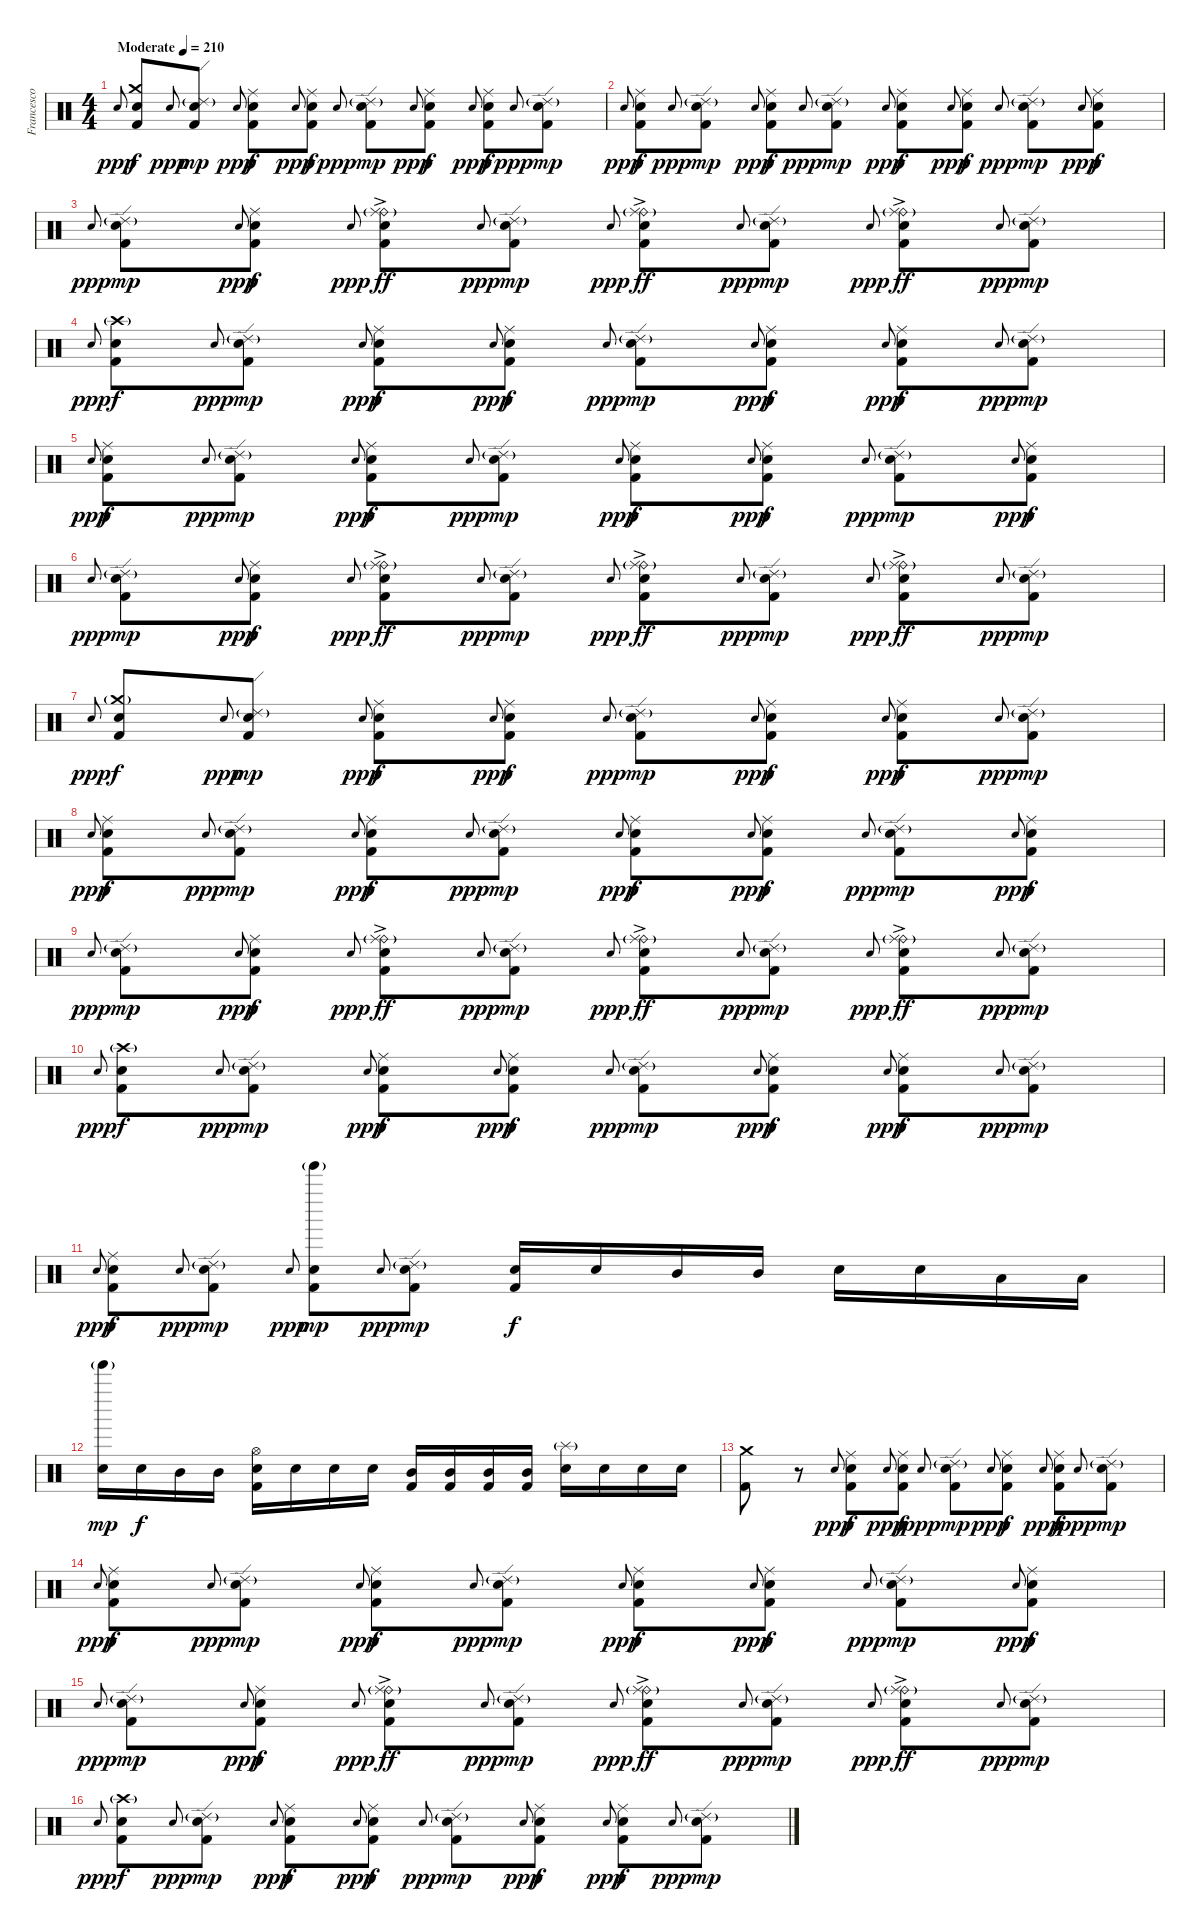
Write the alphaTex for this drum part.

\track ("Francesco Ferrini" "Francesco ") {instrument percussion}
\staff {score}
\articulation defaults
\ts (4 4)
\tempo (210 "Moderate")
\clef neutral
\ks c "Electric Snare (hit)"{h}.8{gr onbeat dy ppp}
("Crash medium (hit)" "Electric Snare (hit)" "Kick (hit) 2").8{dy f} "Electric Snare (hit)"{h}.8{gr onbeat dy ppp} ("Ride (edge) 2"{g} "Electric Snare (hit)" "Kick (hit) 2").8{dy mp} "Electric Snare (hit)"{h}.8{gr onbeat dy ppp} ("Ride (middle)" "Electric Snare (hit)" "Kick (hit) 2").8{dy f} "Electric Snare (hit)"{h}.8{gr onbeat dy ppp} ("Ride (middle)" "Electric Snare (hit)" "Kick (hit) 2").8{dy f} "Electric Snare (hit)"{h}.8{gr onbeat dy ppp} ("Ride (edge) 2"{g} "Electric Snare (hit)" "Kick (hit) 2").8{dy mp} "Electric Snare (hit)"{h}.8{gr onbeat dy ppp} ("Ride (middle)" "Electric Snare (hit)" "Kick (hit) 2").8{dy f} "Electric Snare (hit)"{h}.8{gr onbeat dy ppp} ("Ride (middle)" "Electric Snare (hit)" "Kick (hit) 2").8{dy f} "Electric Snare (hit)"{h}.8{gr onbeat dy ppp} ("Ride (edge) 2"{g} "Electric Snare (hit)" "Kick (hit) 2").8{dy mp} |
"Electric Snare (hit)"{h}.8{gr onbeat dy ppp} ("Ride (middle)" "Electric Snare (hit)" "Kick (hit) 2").8{dy f} "Electric Snare (hit)"{h}.8{gr onbeat dy ppp} ("Ride (edge) 2"{g} "Electric Snare (hit)" "Kick (hit) 2").8{dy mp} "Electric Snare (hit)"{h}.8{gr onbeat dy ppp} ("Ride (middle)" "Electric Snare (hit)" "Kick (hit) 2").8{dy f} "Electric Snare (hit)"{h}.8{gr onbeat dy ppp} ("Ride (edge) 2"{g} "Electric Snare (hit)" "Kick (hit) 2").8{dy mp} "Electric Snare (hit)"{h}.8{gr onbeat dy ppp} ("Ride (middle)" "Electric Snare (hit)" "Kick (hit) 2").8{dy f} "Electric Snare (hit)"{h}.8{gr onbeat dy ppp} ("Ride (middle)" "Electric Snare (hit)" "Kick (hit) 2").8{dy f} "Electric Snare (hit)"{h}.8{gr onbeat dy ppp} ("Ride (edge) 2"{g} "Electric Snare (hit)" "Kick (hit) 2").8{dy mp} "Electric Snare (hit)"{h}.8{gr onbeat dy ppp} ("Ride (middle)" "Electric Snare (hit)" "Kick (hit) 2").8{dy f} |
"Electric Snare (hit)"{h}.8{gr onbeat dy ppp} ("Ride (edge) 2"{g} "Electric Snare (hit)" "Kick (hit) 2").8{dy mp} "Electric Snare (hit)"{h}.8{gr onbeat dy ppp} ("Ride (middle)" "Electric Snare (hit)" "Kick (hit) 2").8{dy f} "Electric Snare (hit)"{h}.8{gr onbeat dy ppp} ("Ride (bell)"{g} "Ride (middle)"{ac} "Electric Snare (hit)" "Kick (hit) 2").8{dy ff} "Electric Snare (hit)"{h}.8{gr onbeat dy ppp} ("Ride (edge) 2"{g} "Electric Snare (hit)" "Kick (hit) 2").8{dy mp} "Electric Snare (hit)"{h}.8{gr onbeat dy ppp} ("Ride (bell)"{g} "Ride (middle)"{ac} "Electric Snare (hit)" "Kick (hit) 2").8{dy ff} "Electric Snare (hit)"{h}.8{gr onbeat dy ppp} ("Ride (edge) 2"{g} "Electric Snare (hit)" "Kick (hit) 2").8{dy mp} "Electric Snare (hit)"{h}.8{gr onbeat dy ppp} ("Ride (bell)"{g} "Ride (middle)"{ac} "Electric Snare (hit)" "Kick (hit) 2").8{dy ff} "Electric Snare (hit)"{h}.8{gr onbeat dy ppp} ("Ride (edge) 2"{g} "Electric Snare (hit)" "Kick (hit) 2").8{dy mp} |
"Electric Snare (hit)"{h}.8{gr onbeat dy ppp} ("Crash high (hit)"{g} "Electric Snare (hit)" "Kick (hit) 2").8{dy f} "Electric Snare (hit)"{h}.8{gr onbeat dy ppp} ("Ride (edge) 2"{g} "Electric Snare (hit)" "Kick (hit) 2").8{dy mp} "Electric Snare (hit)"{h}.8{gr onbeat dy ppp} ("Ride (middle)" "Electric Snare (hit)" "Kick (hit) 2").8{dy f} "Electric Snare (hit)"{h}.8{gr onbeat dy ppp} ("Ride (middle)" "Electric Snare (hit)" "Kick (hit) 2").8{dy f} "Electric Snare (hit)"{h}.8{gr onbeat dy ppp} ("Ride (edge) 2"{g} "Electric Snare (hit)" "Kick (hit) 2").8{dy mp} "Electric Snare (hit)"{h}.8{gr onbeat dy ppp} ("Ride (middle)" "Electric Snare (hit)" "Kick (hit) 2").8{dy f} "Electric Snare (hit)"{h}.8{gr onbeat dy ppp} ("Ride (middle)" "Electric Snare (hit)" "Kick (hit) 2").8{dy f} "Electric Snare (hit)"{h}.8{gr onbeat dy ppp} ("Ride (edge) 2"{g} "Electric Snare (hit)" "Kick (hit) 2").8{dy mp} |
"Electric Snare (hit)"{h}.8{gr onbeat dy ppp} ("Ride (middle)" "Electric Snare (hit)" "Kick (hit) 2").8{dy f} "Electric Snare (hit)"{h}.8{gr onbeat dy ppp} ("Ride (edge) 2"{g} "Electric Snare (hit)" "Kick (hit) 2").8{dy mp} "Electric Snare (hit)"{h}.8{gr onbeat dy ppp} ("Ride (middle)" "Electric Snare (hit)" "Kick (hit) 2").8{dy f} "Electric Snare (hit)"{h}.8{gr onbeat dy ppp} ("Ride (edge) 2"{g} "Electric Snare (hit)" "Kick (hit) 2").8{dy mp} "Electric Snare (hit)"{h}.8{gr onbeat dy ppp} ("Ride (middle)" "Electric Snare (hit)" "Kick (hit) 2").8{dy f} "Electric Snare (hit)"{h}.8{gr onbeat dy ppp} ("Ride (middle)" "Electric Snare (hit)" "Kick (hit) 2").8{dy f} "Electric Snare (hit)"{h}.8{gr onbeat dy ppp} ("Ride (edge) 2"{g} "Electric Snare (hit)" "Kick (hit) 2").8{dy mp} "Electric Snare (hit)"{h}.8{gr onbeat dy ppp} ("Ride (middle)" "Electric Snare (hit)" "Kick (hit) 2").8{dy f} |
"Electric Snare (hit)"{h}.8{gr onbeat dy ppp} ("Ride (edge) 2"{g} "Electric Snare (hit)" "Kick (hit) 2").8{dy mp} "Electric Snare (hit)"{h}.8{gr onbeat dy ppp} ("Ride (middle)" "Electric Snare (hit)" "Kick (hit) 2").8{dy f} "Electric Snare (hit)"{h}.8{gr onbeat dy ppp} ("Ride (bell)"{g} "Ride (middle)"{ac} "Electric Snare (hit)" "Kick (hit) 2").8{dy ff} "Electric Snare (hit)"{h}.8{gr onbeat dy ppp} ("Ride (edge) 2"{g} "Electric Snare (hit)" "Kick (hit) 2").8{dy mp} "Electric Snare (hit)"{h}.8{gr onbeat dy ppp} ("Ride (bell)"{g} "Ride (middle)"{ac} "Electric Snare (hit)" "Kick (hit) 2").8{dy ff} "Electric Snare (hit)"{h}.8{gr onbeat dy ppp} ("Ride (edge) 2"{g} "Electric Snare (hit)" "Kick (hit) 2").8{dy mp} "Electric Snare (hit)"{h}.8{gr onbeat dy ppp} ("Ride (bell)"{g} "Ride (middle)"{ac} "Electric Snare (hit)" "Kick (hit) 2").8{dy ff} "Electric Snare (hit)"{h}.8{gr onbeat dy ppp} ("Ride (edge) 2"{g} "Electric Snare (hit)" "Kick (hit) 2").8{dy mp} |
"Electric Snare (hit)"{h}.8{gr onbeat dy ppp} ("Crash medium (hit)"{g} "Electric Snare (hit)" "Kick (hit) 2").8{dy f} "Electric Snare (hit)"{h}.8{gr onbeat dy ppp} ("Ride (edge) 2"{g} "Electric Snare (hit)" "Kick (hit) 2").8{dy mp} "Electric Snare (hit)"{h}.8{gr onbeat dy ppp} ("Ride (middle)" "Electric Snare (hit)" "Kick (hit) 2").8{dy f} "Electric Snare (hit)"{h}.8{gr onbeat dy ppp} ("Ride (middle)" "Electric Snare (hit)" "Kick (hit) 2").8{dy f} "Electric Snare (hit)"{h}.8{gr onbeat dy ppp} ("Ride (edge) 2"{g} "Electric Snare (hit)" "Kick (hit) 2").8{dy mp} "Electric Snare (hit)"{h}.8{gr onbeat dy ppp} ("Ride (middle)" "Electric Snare (hit)" "Kick (hit) 2").8{dy f} "Electric Snare (hit)"{h}.8{gr onbeat dy ppp} ("Ride (middle)" "Electric Snare (hit)" "Kick (hit) 2").8{dy f} "Electric Snare (hit)"{h}.8{gr onbeat dy ppp} ("Ride (edge) 2"{g} "Electric Snare (hit)" "Kick (hit) 2").8{dy mp} |
"Electric Snare (hit)"{h}.8{gr onbeat dy ppp} ("Ride (middle)" "Electric Snare (hit)" "Kick (hit) 2").8{dy f} "Electric Snare (hit)"{h}.8{gr onbeat dy ppp} ("Ride (edge) 2"{g} "Electric Snare (hit)" "Kick (hit) 2").8{dy mp} "Electric Snare (hit)"{h}.8{gr onbeat dy ppp} ("Ride (middle)" "Electric Snare (hit)" "Kick (hit) 2").8{dy f} "Electric Snare (hit)"{h}.8{gr onbeat dy ppp} ("Ride (edge) 2"{g} "Electric Snare (hit)" "Kick (hit) 2").8{dy mp} "Electric Snare (hit)"{h}.8{gr onbeat dy ppp} ("Ride (middle)" "Electric Snare (hit)" "Kick (hit) 2").8{dy f} "Electric Snare (hit)"{h}.8{gr onbeat dy ppp} ("Ride (middle)" "Electric Snare (hit)" "Kick (hit) 2").8{dy f} "Electric Snare (hit)"{h}.8{gr onbeat dy ppp} ("Ride (edge) 2"{g} "Electric Snare (hit)" "Kick (hit) 2").8{dy mp} "Electric Snare (hit)"{h}.8{gr onbeat dy ppp} ("Ride (middle)" "Electric Snare (hit)" "Kick (hit) 2").8{dy f} |
"Electric Snare (hit)"{h}.8{gr onbeat dy ppp} ("Ride (edge) 2"{g} "Electric Snare (hit)" "Kick (hit) 2").8{dy mp} "Electric Snare (hit)"{h}.8{gr onbeat dy ppp} ("Ride (middle)" "Electric Snare (hit)" "Kick (hit) 2").8{dy f} "Electric Snare (hit)"{h}.8{gr onbeat dy ppp} ("Ride (bell)"{g} "Ride (middle)"{ac} "Electric Snare (hit)" "Kick (hit) 2").8{dy ff} "Electric Snare (hit)"{h}.8{gr onbeat dy ppp} ("Ride (edge) 2"{g} "Electric Snare (hit)" "Kick (hit) 2").8{dy mp} "Electric Snare (hit)"{h}.8{gr onbeat dy ppp} ("Ride (bell)"{g} "Ride (middle)"{ac} "Electric Snare (hit)" "Kick (hit) 2").8{dy ff} "Electric Snare (hit)"{h}.8{gr onbeat dy ppp} ("Ride (edge) 2"{g} "Electric Snare (hit)" "Kick (hit) 2").8{dy mp} "Electric Snare (hit)"{h}.8{gr onbeat dy ppp} ("Ride (bell)"{g} "Ride (middle)"{ac} "Electric Snare (hit)" "Kick (hit) 2").8{dy ff} "Electric Snare (hit)"{h}.8{gr onbeat dy ppp} ("Ride (edge) 2"{g} "Electric Snare (hit)" "Kick (hit) 2").8{dy mp} |
"Electric Snare (hit)"{h}.8{gr onbeat dy ppp} ("Crash high (hit)"{g} "Electric Snare (hit)" "Kick (hit) 2").8{dy f} "Electric Snare (hit)"{h}.8{gr onbeat dy ppp} ("Ride (edge) 2"{g} "Electric Snare (hit)" "Kick (hit) 2").8{dy mp} "Electric Snare (hit)"{h}.8{gr onbeat dy ppp} ("Ride (middle)" "Electric Snare (hit)" "Kick (hit) 2").8{dy f} "Electric Snare (hit)"{h}.8{gr onbeat dy ppp} ("Ride (middle)" "Electric Snare (hit)" "Kick (hit) 2").8{dy f} "Electric Snare (hit)"{h}.8{gr onbeat dy ppp} ("Ride (edge) 2"{g} "Electric Snare (hit)" "Kick (hit) 2").8{dy mp} "Electric Snare (hit)"{h}.8{gr onbeat dy ppp} ("Ride (middle)" "Electric Snare (hit)" "Kick (hit) 2").8{dy f} "Electric Snare (hit)"{h}.8{gr onbeat dy ppp} ("Ride (middle)" "Electric Snare (hit)" "Kick (hit) 2").8{dy f} "Electric Snare (hit)"{h}.8{gr onbeat dy ppp} ("Ride (edge) 2"{g} "Electric Snare (hit)" "Kick (hit) 2").8{dy mp} |
"Electric Snare (hit)"{h}.8{gr onbeat dy ppp} ("Ride (middle)" "Electric Snare (hit)" "Kick (hit) 2").8{dy f} "Electric Snare (hit)"{h}.8{gr onbeat dy ppp} ("Ride (edge) 2"{g} "Electric Snare (hit)" "Kick (hit) 2").8{dy mp} "Electric Snare (hit)"{h}.8{gr onbeat dy ppp} ("Tinkle Bell (hit)"{g} "Electric Snare (hit)" "Kick (hit) 2").8{dy mp} "Electric Snare (hit)"{h}.8{gr onbeat dy ppp} ("Ride (edge) 2"{g} "Electric Snare (hit)" "Kick (hit) 2").8{dy mp} ("Electric Snare (hit)" "Kick (hit) 2").16{dy f} "Electric Snare (hit)".16 "Mid Tom (hit)".16 "Mid Tom (hit)".16 "Electric Snare (hit)".16 "Electric Snare (hit)".16 "Low Tom (hit)".16 "Low Tom (hit)".16 |
("Tinkle Bell (hit)"{g} "Electric Snare (hit)").16{dy mp} "Electric Snare (hit)".16{dy f} "Mid Tom (hit)".16 "Mid Tom (hit)".16 ("Hi-Hat (open)" "Electric Snare (hit)" "Kick (hit) 2").16 "Electric Snare (hit)".16 "Electric Snare (hit)".16 "Electric Snare (hit)".16 ("Mid Tom (hit)" "Kick (hit) 2").16 ("Mid Tom (hit)" "Kick (hit) 2").16 ("Mid Tom (hit)" "Kick (hit) 2").16 ("Mid Tom (hit)" "Kick (hit) 2").16 ("Splash (hit)"{g} "Electric Snare (hit)").16 "Electric Snare (hit)".16 "Electric Snare (hit)".16 "Electric Snare (hit)".16 |
("Crash medium (hit)" "Kick (hit) 2").8 r.8 "Electric Snare (hit)"{h}.8{gr onbeat dy ppp} ("Ride (middle)" "Electric Snare (hit)" "Kick (hit) 2").8{dy f} "Electric Snare (hit)"{h}.8{gr onbeat dy ppp} ("Ride (middle)" "Electric Snare (hit)" "Kick (hit) 2").8{dy f} "Electric Snare (hit)"{h}.8{gr onbeat dy ppp} ("Ride (edge) 2"{g} "Electric Snare (hit)" "Kick (hit) 2").8{dy mp} "Electric Snare (hit)"{h}.8{gr onbeat dy ppp} ("Ride (middle)" "Electric Snare (hit)" "Kick (hit) 2").8{dy f} "Electric Snare (hit)"{h}.8{gr onbeat dy ppp} ("Ride (middle)" "Electric Snare (hit)" "Kick (hit) 2").8{dy f} "Electric Snare (hit)"{h}.8{gr onbeat dy ppp} ("Ride (edge) 2"{g} "Electric Snare (hit)" "Kick (hit) 2").8{dy mp} |
"Electric Snare (hit)"{h}.8{gr onbeat dy ppp} ("Ride (middle)" "Electric Snare (hit)" "Kick (hit) 2").8{dy f} "Electric Snare (hit)"{h}.8{gr onbeat dy ppp} ("Ride (edge) 2"{g} "Electric Snare (hit)" "Kick (hit) 2").8{dy mp} "Electric Snare (hit)"{h}.8{gr onbeat dy ppp} ("Ride (middle)" "Electric Snare (hit)" "Kick (hit) 2").8{dy f} "Electric Snare (hit)"{h}.8{gr onbeat dy ppp} ("Ride (edge) 2"{g} "Electric Snare (hit)" "Kick (hit) 2").8{dy mp} "Electric Snare (hit)"{h}.8{gr onbeat dy ppp} ("Ride (middle)" "Electric Snare (hit)" "Kick (hit) 2").8{dy f} "Electric Snare (hit)"{h}.8{gr onbeat dy ppp} ("Ride (middle)" "Electric Snare (hit)" "Kick (hit) 2").8{dy f} "Electric Snare (hit)"{h}.8{gr onbeat dy ppp} ("Ride (edge) 2"{g} "Electric Snare (hit)" "Kick (hit) 2").8{dy mp} "Electric Snare (hit)"{h}.8{gr onbeat dy ppp} ("Ride (middle)" "Electric Snare (hit)" "Kick (hit) 2").8{dy f} |
"Electric Snare (hit)"{h}.8{gr onbeat dy ppp} ("Ride (edge) 2"{g} "Electric Snare (hit)" "Kick (hit) 2").8{dy mp} "Electric Snare (hit)"{h}.8{gr onbeat dy ppp} ("Ride (middle)" "Electric Snare (hit)" "Kick (hit) 2").8{dy f} "Electric Snare (hit)"{h}.8{gr onbeat dy ppp} ("Ride (bell)"{g} "Ride (middle)"{ac} "Electric Snare (hit)" "Kick (hit) 2").8{dy ff} "Electric Snare (hit)"{h}.8{gr onbeat dy ppp} ("Ride (edge) 2"{g} "Electric Snare (hit)" "Kick (hit) 2").8{dy mp} "Electric Snare (hit)"{h}.8{gr onbeat dy ppp} ("Ride (bell)"{g} "Ride (middle)"{ac} "Electric Snare (hit)" "Kick (hit) 2").8{dy ff} "Electric Snare (hit)"{h}.8{gr onbeat dy ppp} ("Ride (edge) 2"{g} "Electric Snare (hit)" "Kick (hit) 2").8{dy mp} "Electric Snare (hit)"{h}.8{gr onbeat dy ppp} ("Ride (bell)"{g} "Ride (middle)"{ac} "Electric Snare (hit)" "Kick (hit) 2").8{dy ff} "Electric Snare (hit)"{h}.8{gr onbeat dy ppp} ("Ride (edge) 2"{g} "Electric Snare (hit)" "Kick (hit) 2").8{dy mp} |
"Electric Snare (hit)"{h}.8{gr onbeat dy ppp} ("Crash high (hit)"{g} "Electric Snare (hit)" "Kick (hit) 2").8{dy f} "Electric Snare (hit)"{h}.8{gr onbeat dy ppp} ("Ride (edge) 2"{g} "Electric Snare (hit)" "Kick (hit) 2").8{dy mp} "Electric Snare (hit)"{h}.8{gr onbeat dy ppp} ("Ride (middle)" "Electric Snare (hit)" "Kick (hit) 2").8{dy f} "Electric Snare (hit)"{h}.8{gr onbeat dy ppp} ("Ride (middle)" "Electric Snare (hit)" "Kick (hit) 2").8{dy f} "Electric Snare (hit)"{h}.8{gr onbeat dy ppp} ("Ride (edge) 2"{g} "Electric Snare (hit)" "Kick (hit) 2").8{dy mp} "Electric Snare (hit)"{h}.8{gr onbeat dy ppp} ("Ride (middle)" "Electric Snare (hit)" "Kick (hit) 2").8{dy f} "Electric Snare (hit)"{h}.8{gr onbeat dy ppp} ("Ride (middle)" "Electric Snare (hit)" "Kick (hit) 2").8{dy f} "Electric Snare (hit)"{h}.8{gr onbeat dy ppp} ("Ride (edge) 2"{g} "Electric Snare (hit)" "Kick (hit) 2").8{dy mp}
